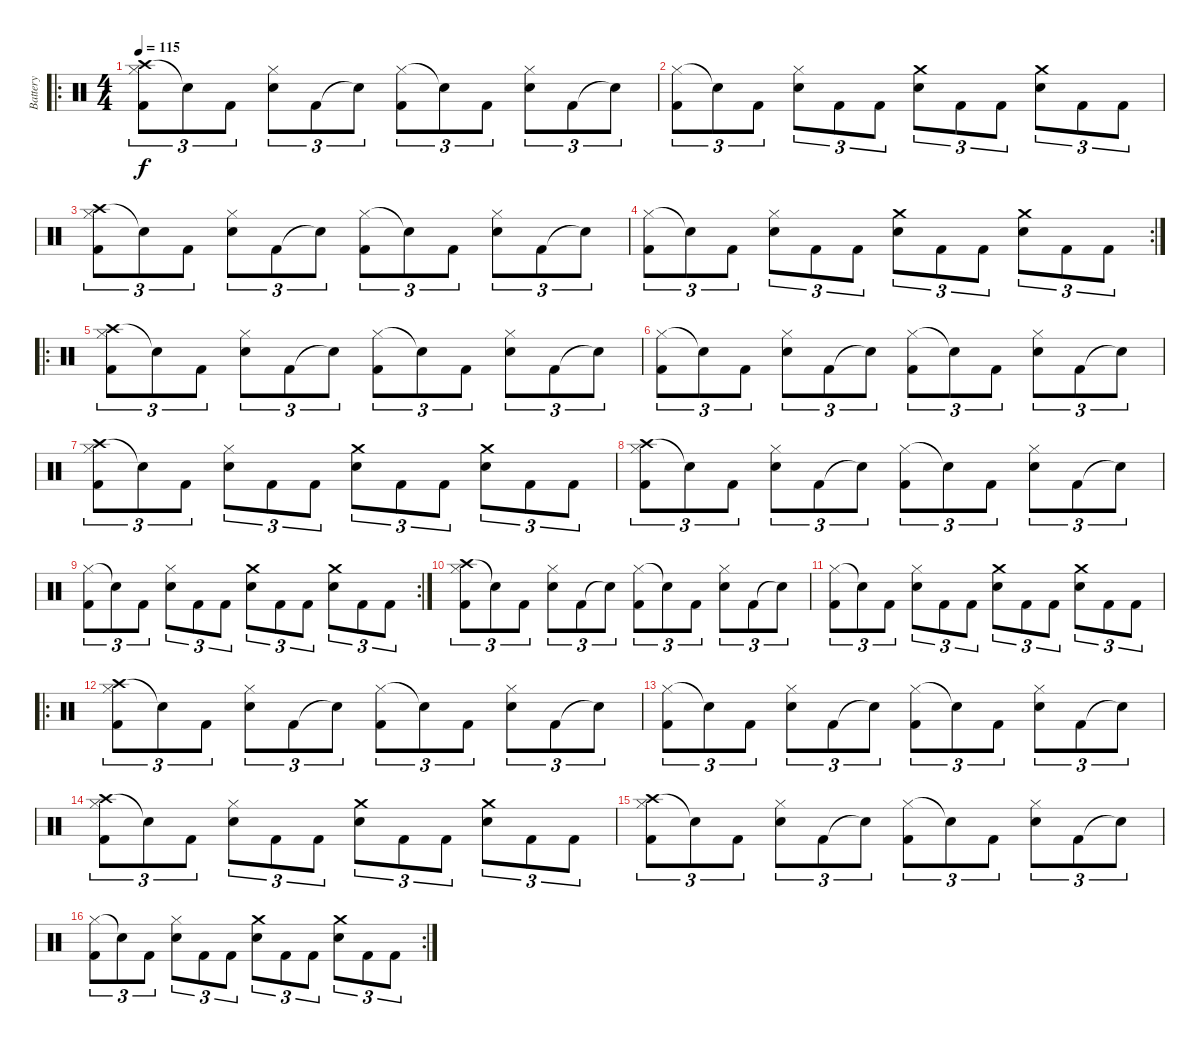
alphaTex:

\track ("Battery" "Battery") {instrument percussion}
\staff {score}
\articulation defaults
\ro
\ts (4 4)
\tempo 115
\clef neutral
\ks c
("Crash high (hit)" "Hi-Hat (closed)" "Kick (hit) 2").8{tu (3 2) dy f} "Snare (hit)"{t}.8{tu (3 2)} "Kick (hit) 2".8{tu (3 2)} ("Hi-Hat (closed)" "Electric Snare (hit)").8{tu (3 2)} "Kick (hit) 2".8{tu (3 2)} "Snare (hit)"{t}.8{tu (3 2)} ("Hi-Hat (closed)" "Kick (hit) 2").8{tu (3 2)} "Snare (hit)"{t}.8{tu (3 2)} "Kick (hit) 2".8{tu (3 2)} ("Hi-Hat (closed)" "Electric Snare (hit)").8{tu (3 2)} "Kick (hit) 2".8{tu (3 2)} "Snare (hit)"{t}.8{tu (3 2)} |
("Hi-Hat (closed)" "Kick (hit) 2").8{tu (3 2)} "Snare (hit)"{t}.8{tu (3 2)} "Kick (hit) 2".8{tu (3 2)} ("Hi-Hat (closed)" "Electric Snare (hit)").8{tu (3 2)} "Kick (hit) 2".8{tu (3 2)} "Kick (hit) 2".8{tu (3 2)} ("Crash medium (hit)" "Electric Snare (hit)").8{tu (3 2)} "Kick (hit) 2".8{tu (3 2)} "Kick (hit) 2".8{tu (3 2)} ("Crash medium (hit)" "Electric Snare (hit)").8{tu (3 2)} "Kick (hit) 2".8{tu (3 2)} "Kick (hit) 2".8{tu (3 2)} |
("Crash high (hit)" "Hi-Hat (closed)" "Kick (hit) 2").8{tu (3 2)} "Snare (hit)"{t}.8{tu (3 2)} "Kick (hit) 2".8{tu (3 2)} ("Hi-Hat (closed)" "Electric Snare (hit)").8{tu (3 2)} "Kick (hit) 2".8{tu (3 2)} "Snare (hit)"{t}.8{tu (3 2)} ("Hi-Hat (closed)" "Kick (hit) 2").8{tu (3 2)} "Snare (hit)"{t}.8{tu (3 2)} "Kick (hit) 2".8{tu (3 2)} ("Hi-Hat (closed)" "Electric Snare (hit)").8{tu (3 2)} "Kick (hit) 2".8{tu (3 2)} "Snare (hit)"{t}.8{tu (3 2)} |
\rc 2
("Hi-Hat (closed)" "Kick (hit) 2").8{tu (3 2)} "Snare (hit)"{t}.8{tu (3 2)} "Kick (hit) 2".8{tu (3 2)} ("Hi-Hat (closed)" "Electric Snare (hit)").8{tu (3 2)} "Kick (hit) 2".8{tu (3 2)} "Kick (hit) 2".8{tu (3 2)} ("Crash medium (hit)" "Electric Snare (hit)").8{tu (3 2)} "Kick (hit) 2".8{tu (3 2)} "Kick (hit) 2".8{tu (3 2)} ("Crash medium (hit)" "Electric Snare (hit)").8{tu (3 2)} "Kick (hit) 2".8{tu (3 2)} "Kick (hit) 2".8{tu (3 2)} |
\ro
("Crash high (hit)" "Hi-Hat (closed)" "Kick (hit) 2").8{tu (3 2)} "Snare (hit)"{t}.8{tu (3 2)} "Kick (hit) 2".8{tu (3 2)} ("Hi-Hat (closed)" "Electric Snare (hit)").8{tu (3 2)} "Kick (hit) 2".8{tu (3 2)} "Snare (hit)"{t}.8{tu (3 2)} ("Hi-Hat (closed)" "Kick (hit) 2").8{tu (3 2)} "Snare (hit)"{t}.8{tu (3 2)} "Kick (hit) 2".8{tu (3 2)} ("Hi-Hat (closed)" "Electric Snare (hit)").8{tu (3 2)} "Kick (hit) 2".8{tu (3 2)} "Snare (hit)"{t}.8{tu (3 2)} |
("Hi-Hat (closed)" "Kick (hit) 2").8{tu (3 2)} "Snare (hit)"{t}.8{tu (3 2)} "Kick (hit) 2".8{tu (3 2)} ("Hi-Hat (closed)" "Electric Snare (hit)").8{tu (3 2)} "Kick (hit) 2".8{tu (3 2)} "Snare (hit)"{t}.8{tu (3 2)} ("Hi-Hat (closed)" "Kick (hit) 2").8{tu (3 2)} "Snare (hit)"{t}.8{tu (3 2)} "Kick (hit) 2".8{tu (3 2)} ("Hi-Hat (closed)" "Electric Snare (hit)").8{tu (3 2)} "Kick (hit) 2".8{tu (3 2)} "Snare (hit)"{t}.8{tu (3 2)} |
("Crash high (hit)" "Hi-Hat (closed)" "Kick (hit) 2").8{tu (3 2)} "Snare (hit)"{t}.8{tu (3 2)} "Kick (hit) 2".8{tu (3 2)} ("Hi-Hat (closed)" "Electric Snare (hit)").8{tu (3 2)} "Kick (hit) 2".8{tu (3 2)} "Kick (hit) 2".8{tu (3 2)} ("Crash medium (hit)" "Electric Snare (hit)").8{tu (3 2)} "Kick (hit) 2".8{tu (3 2)} "Kick (hit) 2".8{tu (3 2)} ("Crash medium (hit)" "Electric Snare (hit)").8{tu (3 2)} "Kick (hit) 2".8{tu (3 2)} "Kick (hit) 2".8{tu (3 2)} |
("Crash high (hit)" "Hi-Hat (closed)" "Kick (hit) 2").8{tu (3 2)} "Snare (hit)"{t}.8{tu (3 2)} "Kick (hit) 2".8{tu (3 2)} ("Hi-Hat (closed)" "Electric Snare (hit)").8{tu (3 2)} "Kick (hit) 2".8{tu (3 2)} "Snare (hit)"{t}.8{tu (3 2)} ("Hi-Hat (closed)" "Kick (hit) 2").8{tu (3 2)} "Snare (hit)"{t}.8{tu (3 2)} "Kick (hit) 2".8{tu (3 2)} ("Hi-Hat (closed)" "Electric Snare (hit)").8{tu (3 2)} "Kick (hit) 2".8{tu (3 2)} "Snare (hit)"{t}.8{tu (3 2)} |
\rc 2
("Hi-Hat (closed)" "Kick (hit) 2").8{tu (3 2)} "Snare (hit)"{t}.8{tu (3 2)} "Kick (hit) 2".8{tu (3 2)} ("Hi-Hat (closed)" "Electric Snare (hit)").8{tu (3 2)} "Kick (hit) 2".8{tu (3 2)} "Kick (hit) 2".8{tu (3 2)} ("Crash medium (hit)" "Electric Snare (hit)").8{tu (3 2)} "Kick (hit) 2".8{tu (3 2)} "Kick (hit) 2".8{tu (3 2)} ("Crash medium (hit)" "Electric Snare (hit)").8{tu (3 2)} "Kick (hit) 2".8{tu (3 2)} "Kick (hit) 2".8{tu (3 2)} |
("Crash high (hit)" "Hi-Hat (closed)" "Kick (hit) 2").8{tu (3 2)} "Snare (hit)"{t}.8{tu (3 2)} "Kick (hit) 2".8{tu (3 2)} ("Hi-Hat (closed)" "Electric Snare (hit)").8{tu (3 2)} "Kick (hit) 2".8{tu (3 2)} "Snare (hit)"{t}.8{tu (3 2)} ("Hi-Hat (closed)" "Kick (hit) 2").8{tu (3 2)} "Snare (hit)"{t}.8{tu (3 2)} "Kick (hit) 2".8{tu (3 2)} ("Hi-Hat (closed)" "Electric Snare (hit)").8{tu (3 2)} "Kick (hit) 2".8{tu (3 2)} "Snare (hit)"{t}.8{tu (3 2)} |
("Hi-Hat (closed)" "Kick (hit) 2").8{tu (3 2)} "Snare (hit)"{t}.8{tu (3 2)} "Kick (hit) 2".8{tu (3 2)} ("Hi-Hat (closed)" "Electric Snare (hit)").8{tu (3 2)} "Kick (hit) 2".8{tu (3 2)} "Kick (hit) 2".8{tu (3 2)} ("Crash medium (hit)" "Electric Snare (hit)").8{tu (3 2)} "Kick (hit) 2".8{tu (3 2)} "Kick (hit) 2".8{tu (3 2)} ("Crash medium (hit)" "Electric Snare (hit)").8{tu (3 2)} "Kick (hit) 2".8{tu (3 2)} "Kick (hit) 2".8{tu (3 2)} |
\ro
("Crash high (hit)" "Hi-Hat (closed)" "Kick (hit) 2").8{tu (3 2)} "Snare (hit)"{t}.8{tu (3 2)} "Kick (hit) 2".8{tu (3 2)} ("Hi-Hat (closed)" "Electric Snare (hit)").8{tu (3 2)} "Kick (hit) 2".8{tu (3 2)} "Snare (hit)"{t}.8{tu (3 2)} ("Hi-Hat (closed)" "Kick (hit) 2").8{tu (3 2)} "Snare (hit)"{t}.8{tu (3 2)} "Kick (hit) 2".8{tu (3 2)} ("Hi-Hat (closed)" "Electric Snare (hit)").8{tu (3 2)} "Kick (hit) 2".8{tu (3 2)} "Snare (hit)"{t}.8{tu (3 2)} |
("Hi-Hat (closed)" "Kick (hit) 2").8{tu (3 2)} "Snare (hit)"{t}.8{tu (3 2)} "Kick (hit) 2".8{tu (3 2)} ("Hi-Hat (closed)" "Electric Snare (hit)").8{tu (3 2)} "Kick (hit) 2".8{tu (3 2)} "Snare (hit)"{t}.8{tu (3 2)} ("Hi-Hat (closed)" "Kick (hit) 2").8{tu (3 2)} "Snare (hit)"{t}.8{tu (3 2)} "Kick (hit) 2".8{tu (3 2)} ("Hi-Hat (closed)" "Electric Snare (hit)").8{tu (3 2)} "Kick (hit) 2".8{tu (3 2)} "Snare (hit)"{t}.8{tu (3 2)} |
("Crash high (hit)" "Hi-Hat (closed)" "Kick (hit) 2").8{tu (3 2)} "Snare (hit)"{t}.8{tu (3 2)} "Kick (hit) 2".8{tu (3 2)} ("Hi-Hat (closed)" "Electric Snare (hit)").8{tu (3 2)} "Kick (hit) 2".8{tu (3 2)} "Kick (hit) 2".8{tu (3 2)} ("Crash medium (hit)" "Electric Snare (hit)").8{tu (3 2)} "Kick (hit) 2".8{tu (3 2)} "Kick (hit) 2".8{tu (3 2)} ("Crash medium (hit)" "Electric Snare (hit)").8{tu (3 2)} "Kick (hit) 2".8{tu (3 2)} "Kick (hit) 2".8{tu (3 2)} |
("Crash high (hit)" "Hi-Hat (closed)" "Kick (hit) 2").8{tu (3 2)} "Snare (hit)"{t}.8{tu (3 2)} "Kick (hit) 2".8{tu (3 2)} ("Hi-Hat (closed)" "Electric Snare (hit)").8{tu (3 2)} "Kick (hit) 2".8{tu (3 2)} "Snare (hit)"{t}.8{tu (3 2)} ("Hi-Hat (closed)" "Kick (hit) 2").8{tu (3 2)} "Snare (hit)"{t}.8{tu (3 2)} "Kick (hit) 2".8{tu (3 2)} ("Hi-Hat (closed)" "Electric Snare (hit)").8{tu (3 2)} "Kick (hit) 2".8{tu (3 2)} "Snare (hit)"{t}.8{tu (3 2)} |
\rc 2
("Hi-Hat (closed)" "Kick (hit) 2").8{tu (3 2)} "Snare (hit)"{t}.8{tu (3 2)} "Kick (hit) 2".8{tu (3 2)} ("Hi-Hat (closed)" "Electric Snare (hit)").8{tu (3 2)} "Kick (hit) 2".8{tu (3 2)} "Kick (hit) 2".8{tu (3 2)} ("Crash medium (hit)" "Electric Snare (hit)").8{tu (3 2)} "Kick (hit) 2".8{tu (3 2)} "Kick (hit) 2".8{tu (3 2)} ("Crash medium (hit)" "Electric Snare (hit)").8{tu (3 2)} "Kick (hit) 2".8{tu (3 2)} "Kick (hit) 2".8{tu (3 2)}
